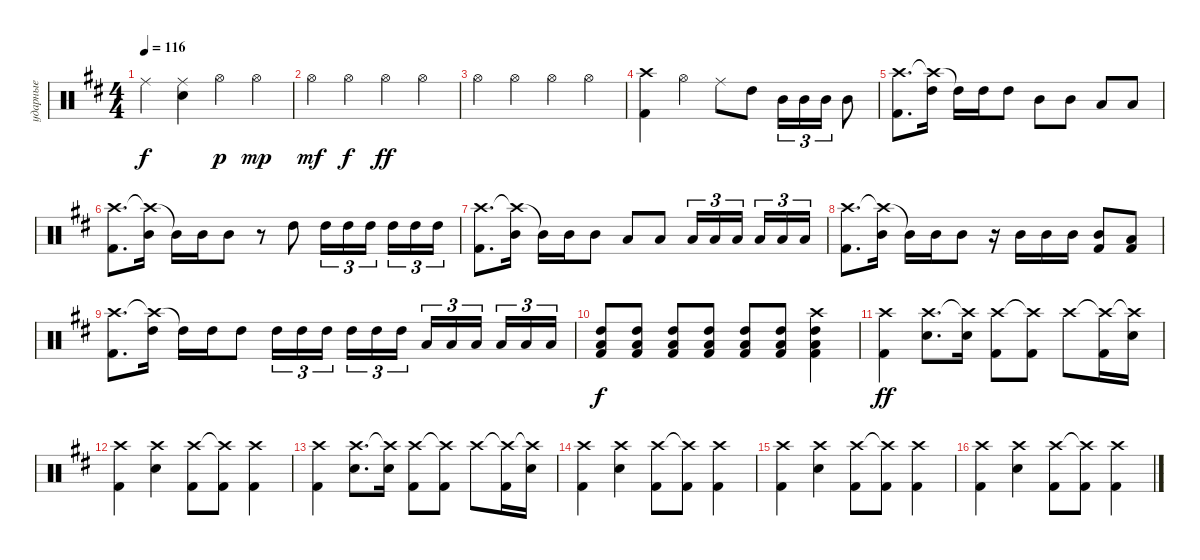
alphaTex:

\track ("ударные" "ударные") {instrument percussion}
\staff {score}
\articulation defaults
\ts (4 4)
\tempo 116
\clef neutral
\ks d "Ride (middle)".4{dy f}
("Ride (middle)" "Hand Clap (hit)").4 "Hi-Hat (open)".4{dy p} "Hi-Hat (open)".4{dy mp} |
"Hi-Hat (open)".4{dy mf} "Hi-Hat (open)".4{dy f} "Hi-Hat (open)".4{dy ff} "Hi-Hat (open)".4 |
"Hi-Hat (open)".4 "Hi-Hat (open)".4 "Hi-Hat (open)".4 "Hi-Hat (open)".4 |
("Crash high (hit)" "Kick (hit) 2").4 "Hi-Hat (open)".4 "Ride (middle)".8 "High Tom (hit)".8 "Mid Tom (hit)".16{tu (3 2)} "Mid Tom (hit)".16{tu (3 2)} "Mid Tom (hit)".16{tu (3 2)} "Mid Tom (hit)".8 |
("Crash high (hit)" "Kick (hit) 2").8{d} ("Crash high (hit)"{t} "High Tom (hit)").16 "High Tom (hit)"{t}.16 "High Tom (hit)".16 "High Tom (hit)".8 "Mid Tom (hit)".8 "Mid Tom (hit)".8 "Low Tom (hit)".8 "Low Tom (hit)".8 |
("Crash high (hit)" "Kick (hit) 2").8{d} ("Crash high (hit)"{t} "Mid Tom (hit)").16 "Mid Tom (hit)"{t}.16 "Mid Tom (hit)".16 "Mid Tom (hit)".8 r.8 "High Tom (hit)".8 "High Tom (hit)".16{tu (3 2)} "High Tom (hit)".16{tu (3 2)} "High Tom (hit)".16{tu (3 2) beam splitsecondary} "High Tom (hit)".16{tu (3 2)} "High Tom (hit)".16{tu (3 2)} "High Tom (hit)".16{tu (3 2)} |
("Crash high (hit)" "Kick (hit) 2").8{d} ("Crash high (hit)"{t} "Mid Tom (hit)").16 "Mid Tom (hit)"{t}.16 "Mid Tom (hit)".16 "Mid Tom (hit)".8 "Low Tom (hit)".8 "Low Tom (hit)".8 "Low Tom (hit)".16{tu (3 2)} "Low Tom (hit)".16{tu (3 2)} "Low Tom (hit)".16{tu (3 2) beam splitsecondary} "Low Tom (hit)".16{tu (3 2)} "Low Tom (hit)".16{tu (3 2)} "Low Tom (hit)".16{tu (3 2)} |
("Crash high (hit)" "Kick (hit) 2").8{d} ("Crash high (hit)"{t} "Mid Tom (hit)").16 "Mid Tom (hit)"{t}.16 "Mid Tom (hit)".16 "Mid Tom (hit)".8 r.16 "Mid Tom (hit)".16 "Mid Tom (hit)".16 "Mid Tom (hit)".16 ("Mid Tom (hit)" "Kick (hit) 2").8 ("Low Tom (hit)" "Kick (hit) 2").8 |
("Crash high (hit)" "Kick (hit) 2").8{d} ("Crash high (hit)"{t} "High Tom (hit)").16 "High Tom (hit)"{t}.16 "High Tom (hit)".16 "High Tom (hit)".8 "High Tom (hit)".16{tu (3 2)} "High Tom (hit)".16{tu (3 2)} "High Tom (hit)".16{tu (3 2) beam splitsecondary} "High Tom (hit)".16{tu (3 2)} "High Tom (hit)".16{tu (3 2)} "High Tom (hit)".16{tu (3 2)} "Low Tom (hit)".16{tu (3 2)} "Low Tom (hit)".16{tu (3 2)} "Low Tom (hit)".16{tu (3 2) beam splitsecondary} "Low Tom (hit)".16{tu (3 2)} "Low Tom (hit)".16{tu (3 2)} "Low Tom (hit)".16{tu (3 2)} |
("High Tom (hit)" "Kick (hit) 2" "Low Tom (hit)").8{dy f} ("High Tom (hit)" "Kick (hit) 2" "Low Tom (hit)").8 ("High Tom (hit)" "Kick (hit) 2" "Low Tom (hit)").8 ("High Tom (hit)" "Kick (hit) 2" "Low Tom (hit)").8 ("High Tom (hit)" "Kick (hit) 2" "Low Tom (hit)").8 ("High Tom (hit)" "Kick (hit) 2" "Low Tom (hit)").8 ("Crash high (hit)" "High Tom (hit)" "Kick (hit) 2" "Low Tom (hit)").4 |
("Crash high (hit)" "Kick (hit) 2").4{dy ff} ("Crash high (hit)" "Snare (hit) 2").8{d} ("Crash high (hit)"{t} "Snare (hit) 2").16 ("Crash high (hit)" "Kick (hit) 2").8 ("Crash high (hit)"{t} "Kick (hit) 2").8 "Crash high (hit)".8 ("Crash high (hit)"{t} "Kick (hit) 2").16 ("Crash high (hit)"{t} "Snare (hit) 2").16 |
("Crash high (hit)" "Kick (hit) 2").4 ("Crash high (hit)" "Snare (hit) 2").4 ("Crash high (hit)" "Kick (hit) 2").8 ("Crash high (hit)"{t} "Kick (hit) 2").8 ("Crash high (hit)" "Kick (hit) 2").4 |
("Crash high (hit)" "Kick (hit) 2").4 ("Crash high (hit)" "Snare (hit) 2").8{d} ("Crash high (hit)"{t} "Snare (hit) 2").16 ("Crash high (hit)" "Kick (hit) 2").8 ("Crash high (hit)"{t} "Kick (hit) 2").8 "Crash high (hit)".8 ("Crash high (hit)"{t} "Kick (hit) 2").16 ("Crash high (hit)"{t} "Snare (hit) 2").16 |
("Crash high (hit)" "Kick (hit) 2").4 ("Crash high (hit)" "Snare (hit) 2").4 ("Crash high (hit)" "Kick (hit) 2").8 ("Crash high (hit)"{t} "Kick (hit) 2").8 ("Crash high (hit)" "Kick (hit) 2").4 |
("Crash high (hit)" "Kick (hit) 2").4 ("Crash high (hit)" "Snare (hit) 2").4 ("Crash high (hit)" "Kick (hit) 2").8 ("Crash high (hit)"{t} "Kick (hit) 2").8 ("Crash high (hit)" "Kick (hit) 2").4 |
("Crash high (hit)" "Kick (hit) 2").4 ("Crash high (hit)" "Snare (hit) 2").4 ("Crash high (hit)" "Kick (hit) 2").8 ("Crash high (hit)"{t} "Kick (hit) 2").8 ("Crash high (hit)" "Kick (hit) 2").4
